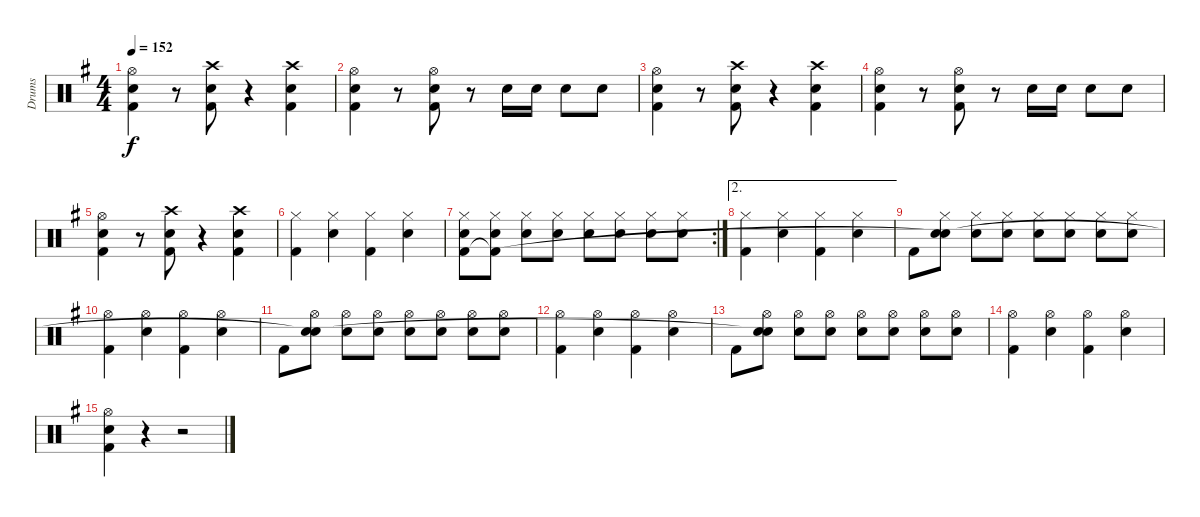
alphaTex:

\track ("Drums" "Drums") {instrument percussion}
\staff {score}
\articulation defaults
\ts (4 4)
\tempo 152
\clef neutral
\ks g
("Hi-Hat (open)" "Snare (hit) 2" "Kick (hit) 2").4{dy f} r.8 ("Crash high (hit)" "Snare (hit) 2" "Kick (hit) 2").8 r.4 ("Crash high (hit)" "Snare (hit) 2" "Kick (hit) 2").4 |
("Hi-Hat (open)" "Snare (hit) 2" "Kick (hit) 2").4 r.8 ("Hi-Hat (open)" "Snare (hit) 2" "Kick (hit) 2").8 r.8 "Snare (hit) 2".16 "Snare (hit) 2".16 "Snare (hit) 2".8 "Snare (hit) 2".8 |
("Hi-Hat (open)" "Snare (hit) 2" "Kick (hit) 2").4 r.8 ("Crash high (hit)" "Snare (hit) 2" "Kick (hit) 2").8 r.4 ("Crash high (hit)" "Snare (hit) 2" "Kick (hit) 2").4 |
("Hi-Hat (open)" "Snare (hit) 2" "Kick (hit) 2").4 r.8 ("Hi-Hat (open)" "Snare (hit) 2" "Kick (hit) 2").8 r.8 "Snare (hit) 2".16 "Snare (hit) 2".16 "Snare (hit) 2".8 "Snare (hit) 2".8 |
("Hi-Hat (open)" "Snare (hit) 2" "Kick (hit) 2").4 r.8 ("Crash high (hit)" "Snare (hit) 2" "Kick (hit) 2").8 r.4 ("Crash high (hit)" "Snare (hit) 2" "Kick (hit) 2").4 |
("Hi-Hat (closed)" "Kick (hit) 2").4 ("Hi-Hat (closed)" "Snare (hit) 2").4 ("Hi-Hat (closed)" "Kick (hit) 2").4 ("Hi-Hat (closed)" "Snare (hit) 2").4 |
\rc 2
("Hi-Hat (closed)" "Snare (hit) 2" "Kick (hit) 2").8 ("Hi-Hat (closed)" "Snare (hit) 2" "Kick (hit) 2"{t}).8 ("Hi-Hat (closed)" "Snare (hit) 2").8 ("Hi-Hat (closed)" "Snare (hit) 2").8 ("Hi-Hat (closed)" "Snare (hit) 2").8 ("Hi-Hat (closed)" "Snare (hit) 2").8 ("Hi-Hat (closed)" "Snare (hit) 2").8 ("Hi-Hat (closed)" "Snare (hit) 2").8 |
\ae 2
("Hi-Hat (closed)" "Kick (hit) 2").4 ("Hi-Hat (closed)" "Snare (hit) 2").4 ("Hi-Hat (closed)" "Kick (hit) 2").4 ("Hi-Hat (closed)" "Snare (hit) 2").4 |
"Kick (hit) 2".8 ("Hi-Hat (closed)" "Snare (hit) 2" "Snare (hit)"{t}).8 ("Hi-Hat (closed)" "Snare (hit) 2").8 ("Hi-Hat (closed)" "Snare (hit) 2").8 ("Hi-Hat (closed)" "Snare (hit) 2").8 ("Hi-Hat (closed)" "Snare (hit) 2").8 ("Hi-Hat (closed)" "Snare (hit) 2").8 ("Hi-Hat (closed)" "Snare (hit) 2").8 |
("Hi-Hat (open)" "Kick (hit) 2").4 ("Hi-Hat (open)" "Snare (hit) 2").4 ("Hi-Hat (open)" "Kick (hit) 2").4 ("Hi-Hat (open)" "Snare (hit) 2").4 |
"Kick (hit) 2".8 ("Hi-Hat (open)" "Snare (hit) 2" "Snare (hit)"{t}).8 ("Hi-Hat (open)" "Snare (hit) 2").8 ("Hi-Hat (open)" "Snare (hit) 2").8 ("Hi-Hat (open)" "Snare (hit) 2").8 ("Hi-Hat (open)" "Snare (hit) 2").8 ("Hi-Hat (open)" "Snare (hit) 2").8 ("Hi-Hat (open)" "Snare (hit) 2").8 |
("Hi-Hat (open)" "Kick (hit) 2").4 ("Hi-Hat (open)" "Snare (hit) 2").4 ("Hi-Hat (open)" "Kick (hit) 2").4 ("Hi-Hat (open)" "Snare (hit) 2").4 |
"Kick (hit) 2".8 ("Hi-Hat (open)" "Snare (hit) 2" "Snare (hit)"{t}).8 ("Hi-Hat (open)" "Snare (hit) 2").8 ("Hi-Hat (open)" "Snare (hit) 2").8 ("Hi-Hat (open)" "Snare (hit) 2").8 ("Hi-Hat (open)" "Snare (hit) 2").8 ("Hi-Hat (open)" "Snare (hit) 2").8 ("Hi-Hat (open)" "Snare (hit) 2").8 |
("Hi-Hat (open)" "Kick (hit) 2").4 ("Hi-Hat (open)" "Snare (hit) 2").4 ("Hi-Hat (open)" "Kick (hit) 2").4 ("Hi-Hat (open)" "Snare (hit) 2").4 |
("Hi-Hat (open)" "Snare (hit) 2" "Kick (hit) 2").4 r.4 r.2
